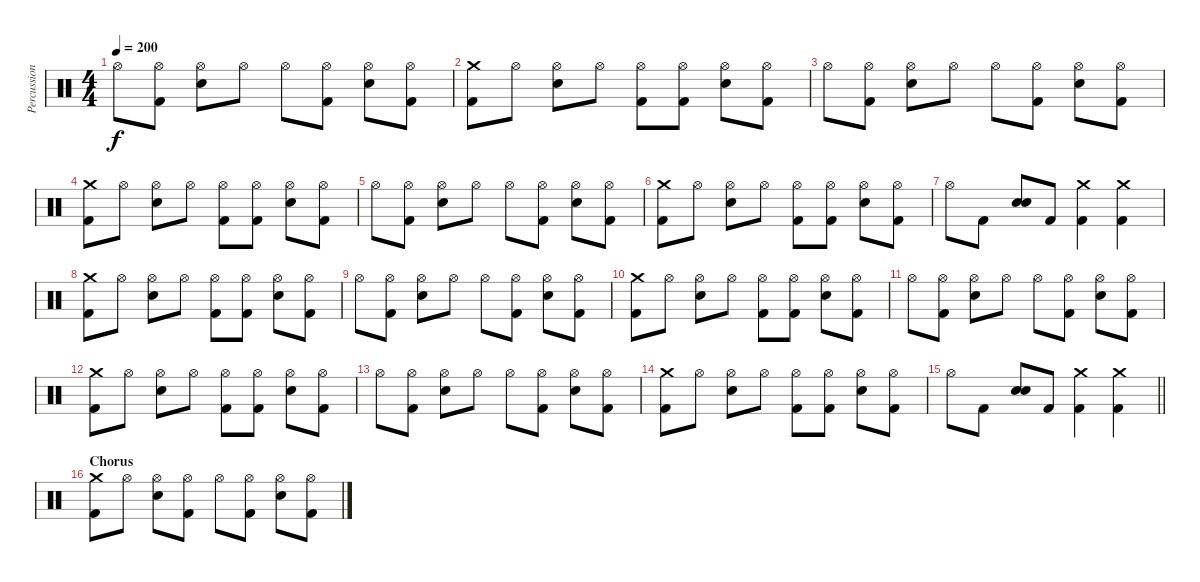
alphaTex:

\track ("Percussion" "Percussion") {instrument percussion}
\staff {score}
\articulation defaults
\ts (4 4)
\tempo 200
\clef neutral
\ks c "Hi-Hat (open)".8{dy f}
("Hi-Hat (open)" "Kick (hit) 2").8 ("Hi-Hat (open)" "Electric Snare (hit)").8 "Hi-Hat (open)".8 "Hi-Hat (open)".8 ("Hi-Hat (open)" "Kick (hit) 2").8 ("Hi-Hat (open)" "Electric Snare (hit)").8 ("Hi-Hat (open)" "Kick (hit) 2").8 |
("Crash medium (hit)" "Kick (hit) 2").8 "Hi-Hat (open)".8 ("Hi-Hat (open)" "Electric Snare (hit)").8 "Hi-Hat (open)".8 ("Hi-Hat (open)" "Kick (hit) 2").8 ("Hi-Hat (open)" "Kick (hit) 2").8 ("Hi-Hat (open)" "Electric Snare (hit)").8 ("Hi-Hat (open)" "Kick (hit) 2").8 |
"Hi-Hat (open)".8 ("Hi-Hat (open)" "Kick (hit) 2").8 ("Hi-Hat (open)" "Electric Snare (hit)").8 "Hi-Hat (open)".8 "Hi-Hat (open)".8 ("Hi-Hat (open)" "Kick (hit) 2").8 ("Hi-Hat (open)" "Electric Snare (hit)").8 ("Hi-Hat (open)" "Kick (hit) 2").8 |
("Crash medium (hit)" "Kick (hit) 2").8 "Hi-Hat (open)".8 ("Hi-Hat (open)" "Electric Snare (hit)").8 "Hi-Hat (open)".8 ("Hi-Hat (open)" "Kick (hit) 2").8 ("Hi-Hat (open)" "Kick (hit) 2").8 ("Hi-Hat (open)" "Electric Snare (hit)").8 ("Hi-Hat (open)" "Kick (hit) 2").8 |
"Hi-Hat (open)".8 ("Hi-Hat (open)" "Kick (hit) 2").8 ("Hi-Hat (open)" "Electric Snare (hit)").8 "Hi-Hat (open)".8 "Hi-Hat (open)".8 ("Hi-Hat (open)" "Kick (hit) 2").8 ("Hi-Hat (open)" "Electric Snare (hit)").8 ("Hi-Hat (open)" "Kick (hit) 2").8 |
("Crash medium (hit)" "Kick (hit) 2").8 "Hi-Hat (open)".8 ("Hi-Hat (open)" "Electric Snare (hit)").8 "Hi-Hat (open)".8 ("Hi-Hat (open)" "Kick (hit) 2").8 ("Hi-Hat (open)" "Kick (hit) 2").8 ("Hi-Hat (open)" "Electric Snare (hit)").8 ("Hi-Hat (open)" "Kick (hit) 2").8 |
"Hi-Hat (open)".8 "Kick (hit) 2".8 ("Electric Snare (hit)" "Electric Snare (hit)").8 "Kick (hit) 2".8 ("Crash medium (hit)" "Kick (hit) 2").4 ("Crash medium (hit)" "Kick (hit) 2").4 |
("Crash medium (hit)" "Kick (hit) 2").8 "Hi-Hat (open)".8 ("Hi-Hat (open)" "Electric Snare (hit)").8 "Hi-Hat (open)".8 ("Hi-Hat (open)" "Kick (hit) 2").8 ("Hi-Hat (open)" "Kick (hit) 2").8 ("Hi-Hat (open)" "Electric Snare (hit)").8 ("Hi-Hat (open)" "Kick (hit) 2").8 |
"Hi-Hat (open)".8 ("Hi-Hat (open)" "Kick (hit) 2").8 ("Hi-Hat (open)" "Electric Snare (hit)").8 "Hi-Hat (open)".8 "Hi-Hat (open)".8 ("Hi-Hat (open)" "Kick (hit) 2").8 ("Hi-Hat (open)" "Electric Snare (hit)").8 ("Hi-Hat (open)" "Kick (hit) 2").8 |
("Crash medium (hit)" "Kick (hit) 2").8 "Hi-Hat (open)".8 ("Hi-Hat (open)" "Electric Snare (hit)").8 "Hi-Hat (open)".8 ("Hi-Hat (open)" "Kick (hit) 2").8 ("Hi-Hat (open)" "Kick (hit) 2").8 ("Hi-Hat (open)" "Electric Snare (hit)").8 ("Hi-Hat (open)" "Kick (hit) 2").8 |
"Hi-Hat (open)".8 ("Hi-Hat (open)" "Kick (hit) 2").8 ("Hi-Hat (open)" "Electric Snare (hit)").8 "Hi-Hat (open)".8 "Hi-Hat (open)".8 ("Hi-Hat (open)" "Kick (hit) 2").8 ("Hi-Hat (open)" "Electric Snare (hit)").8 ("Hi-Hat (open)" "Kick (hit) 2").8 |
("Crash medium (hit)" "Kick (hit) 2").8 "Hi-Hat (open)".8 ("Hi-Hat (open)" "Electric Snare (hit)").8 "Hi-Hat (open)".8 ("Hi-Hat (open)" "Kick (hit) 2").8 ("Hi-Hat (open)" "Kick (hit) 2").8 ("Hi-Hat (open)" "Electric Snare (hit)").8 ("Hi-Hat (open)" "Kick (hit) 2").8 |
"Hi-Hat (open)".8 ("Hi-Hat (open)" "Kick (hit) 2").8 ("Hi-Hat (open)" "Electric Snare (hit)").8 "Hi-Hat (open)".8 "Hi-Hat (open)".8 ("Hi-Hat (open)" "Kick (hit) 2").8 ("Hi-Hat (open)" "Electric Snare (hit)").8 ("Hi-Hat (open)" "Kick (hit) 2").8 |
("Crash medium (hit)" "Kick (hit) 2").8 "Hi-Hat (open)".8 ("Hi-Hat (open)" "Electric Snare (hit)").8 "Hi-Hat (open)".8 ("Hi-Hat (open)" "Kick (hit) 2").8 ("Hi-Hat (open)" "Kick (hit) 2").8 ("Hi-Hat (open)" "Electric Snare (hit)").8 ("Hi-Hat (open)" "Kick (hit) 2").8 |
\barLineRight lightlight "Hi-Hat (open)".8 "Kick (hit) 2".8
("Electric Snare (hit)" "Electric Snare (hit)").8 "Kick (hit) 2".8 ("Crash medium (hit)" "Kick (hit) 2").4 ("Crash medium (hit)" "Kick (hit) 2").4 |
\section ("" "Chorus")
("Crash medium (hit)" "Kick (hit) 2").8 "Hi-Hat (open)".8 ("Hi-Hat (open)" "Electric Snare (hit)").8 ("Hi-Hat (open)" "Kick (hit) 2").8 "Hi-Hat (open)".8 ("Hi-Hat (open)" "Kick (hit) 2").8 ("Hi-Hat (open)" "Electric Snare (hit)").8 ("Hi-Hat (open)" "Kick (hit) 2").8
